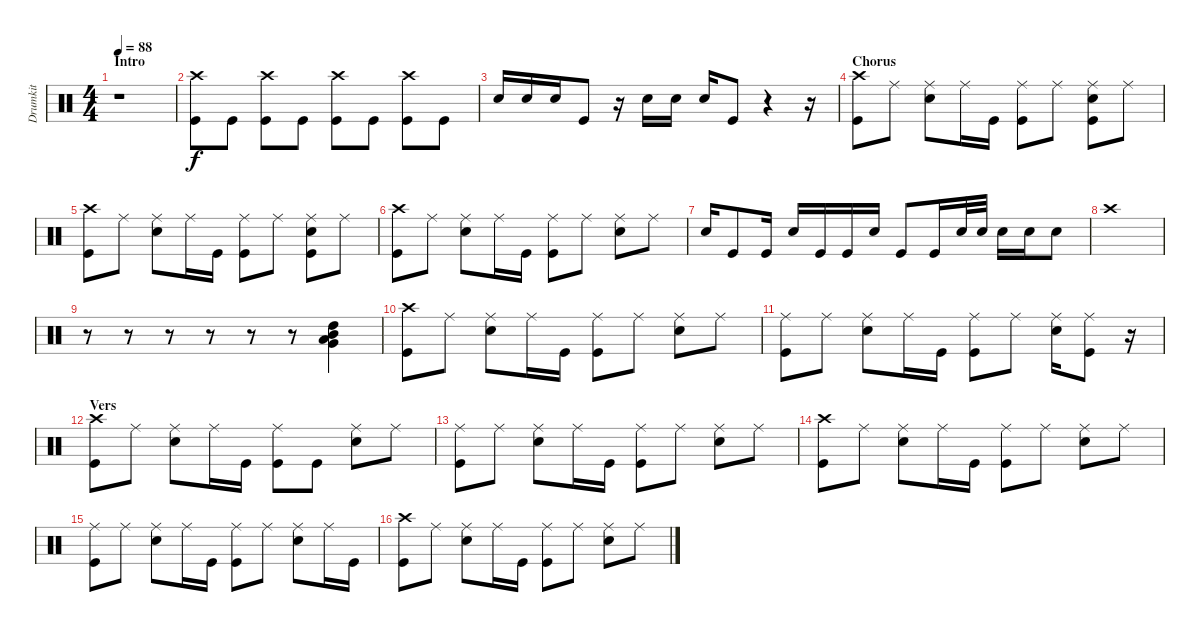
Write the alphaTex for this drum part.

\track ("Drumkit" "Drumkit") {instrument percussion}
\staff {score}
\articulation defaults
\ts (4 4)
\section ("" "Intro")
\tempo 88
\clef neutral
\ks c
r.1{dy f} |
("Crash high (hit)" "Kick (hit)").8 "Kick (hit)".8 ("Crash high (hit)" "Kick (hit)").8 "Kick (hit)".8 ("Crash high (hit)" "Kick (hit)").8 "Kick (hit)".8 ("Crash high (hit)" "Kick (hit)").8 "Kick (hit)".8 |
"Snare (hit) 2".16 "Snare (hit) 2".16 "Snare (hit) 2".16 "Kick (hit)".8 r.16 "Snare (hit) 2".16 "Snare (hit) 2".16 "Snare (hit) 2".16 "Kick (hit)".8 r.4 r.16 |
\section ("" "Chorus")
("Crash high (hit)" "Kick (hit)").8 "Ride (middle)".8 ("Ride (middle)" "Snare (hit) 2").8 "Ride (middle)".16 "Kick (hit)".16 ("Ride (middle)" "Kick (hit)").8 "Ride (middle)".8 ("Ride (middle)" "Snare (hit) 2" "Kick (hit)").8 "Ride (middle)".8 |
("Crash high (hit)" "Kick (hit)").8 "Ride (middle)".8 ("Ride (middle)" "Snare (hit) 2").8 "Ride (middle)".16 "Kick (hit)".16 ("Ride (middle)" "Kick (hit)").8 "Ride (middle)".8 ("Ride (middle)" "Snare (hit) 2" "Kick (hit)").8 "Ride (middle)".8 |
("Crash high (hit)" "Kick (hit)").8 "Ride (middle)".8 ("Ride (middle)" "Snare (hit) 2").8 "Ride (middle)".16 "Kick (hit)".16 ("Ride (middle)" "Kick (hit)").8 "Ride (middle)".8 ("Ride (middle)" "Snare (hit) 2").8 "Ride (middle)".8 |
"Snare (hit) 2".16 "Kick (hit)".8 "Kick (hit)".16 "Snare (hit) 2".16 "Kick (hit)".16 "Kick (hit)".16 "Snare (hit) 2".16 "Kick (hit)".8 "Kick (hit)".16 "Snare (hit) 2".32 "Snare (hit) 2".32 "Snare (hit) 2".16 "Snare (hit) 2".16 "Snare (hit) 2".8 |
"Crash high (hit)".1 |
r.8 r.8 r.8 r.8 r.8 r.8 ("Low Tom (hit)" "Very Low Tom (hit)" "Mid Tom (hit)" "High Tom (hit)").4 |
("Crash high (hit)" "Kick (hit)").8 "Ride (middle)".8 ("Ride (middle)" "Snare (hit) 2").8 "Ride (middle)".16 "Kick (hit)".16 ("Ride (middle)" "Kick (hit)").8 "Ride (middle)".8 ("Ride (middle)" "Snare (hit) 2").8 "Ride (middle)".8 |
("Ride (middle)" "Kick (hit)").8 "Ride (middle)".8 ("Ride (middle)" "Snare (hit) 2").8 "Ride (middle)".16 "Kick (hit)".16 ("Ride (middle)" "Kick (hit)").8 "Ride (middle)".8 ("Ride (middle)" "Snare (hit) 2").16 ("Ride (middle)" "Kick (hit)").8 r.16 |
\section ("" "Vers")
("Crash high (hit)" "Kick (hit)").8 "Ride (middle)".8 ("Ride (middle)" "Snare (hit) 2").8 "Ride (middle)".16 "Kick (hit)".16 ("Ride (middle)" "Kick (hit)").8 "Kick (hit)".8 ("Ride (middle)" "Snare (hit) 2").8 "Ride (middle)".8 |
("Ride (middle)" "Kick (hit)").8 "Ride (middle)".8 ("Ride (middle)" "Snare (hit) 2").8 "Ride (middle)".16 "Kick (hit)".16 ("Ride (middle)" "Kick (hit)").8 "Ride (middle)".8 ("Ride (middle)" "Snare (hit) 2").8 "Ride (middle)".8 |
("Crash high (hit)" "Kick (hit)").8 "Ride (middle)".8 ("Ride (middle)" "Snare (hit) 2").8 "Ride (middle)".16 "Kick (hit)".16 ("Ride (middle)" "Kick (hit)").8 "Ride (middle)".8 ("Ride (middle)" "Snare (hit) 2").8 "Ride (middle)".8 |
("Ride (middle)" "Kick (hit)").8 "Ride (middle)".8 ("Ride (middle)" "Snare (hit) 2").8 "Ride (middle)".16 "Kick (hit)".16 ("Ride (middle)" "Kick (hit)").8 "Ride (middle)".8 ("Ride (middle)" "Snare (hit) 2").8 "Ride (middle)".16 "Kick (hit)".16 |
("Crash high (hit)" "Kick (hit)").8 "Ride (middle)".8 ("Ride (middle)" "Snare (hit) 2").8 "Ride (middle)".16 "Kick (hit)".16 ("Ride (middle)" "Kick (hit)").8 "Ride (middle)".8 ("Ride (middle)" "Snare (hit) 2").8 "Ride (middle)".8
